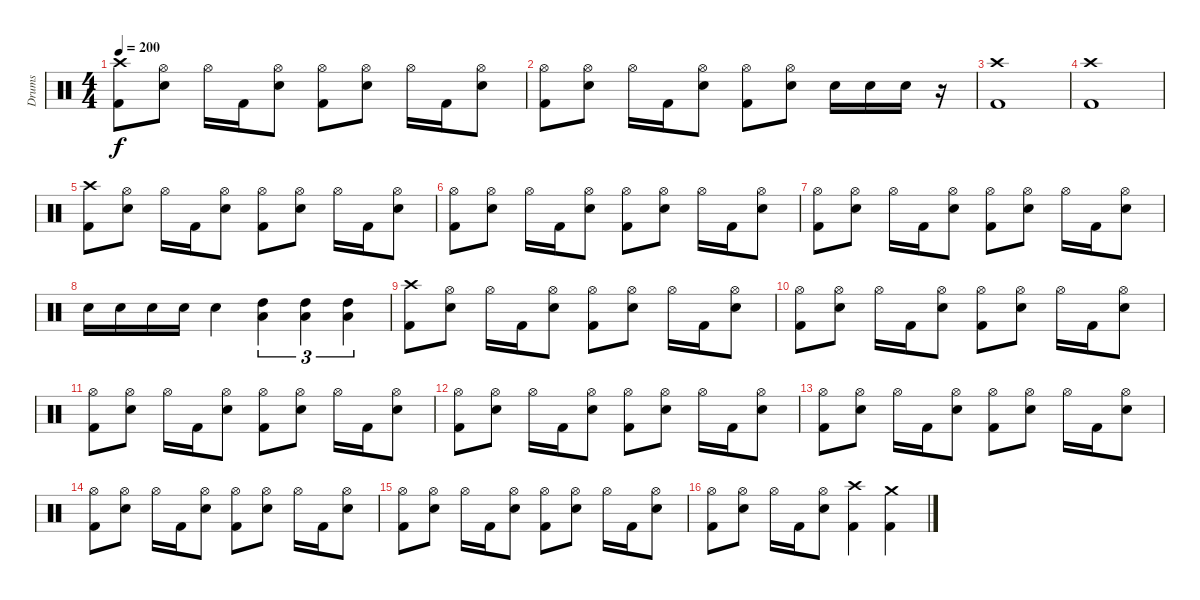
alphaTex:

\track ("Drums" "Drums") {instrument percussion}
\staff {score}
\articulation defaults
\ts (4 4)
\tempo 200
\clef neutral
\ks c
("Crash high (hit)" "Kick (hit) 2").8{dy f} ("Hi-Hat (open)" "Snare (hit) 2").8 "Hi-Hat (open)".16 "Kick (hit) 2".16 ("Hi-Hat (open)" "Snare (hit) 2").8 ("Hi-Hat (open)" "Kick (hit) 2").8 ("Hi-Hat (open)" "Snare (hit) 2").8 "Hi-Hat (open)".16 "Kick (hit) 2".16 ("Hi-Hat (open)" "Snare (hit) 2").8 |
("Hi-Hat (open)" "Kick (hit) 2").8 ("Hi-Hat (open)" "Snare (hit) 2").8 "Hi-Hat (open)".16 "Kick (hit) 2".16 ("Hi-Hat (open)" "Snare (hit) 2").8 ("Hi-Hat (open)" "Kick (hit) 2").8 ("Hi-Hat (open)" "Snare (hit) 2").8 "Snare (hit) 2".16 "Snare (hit) 2".16 "Snare (hit) 2".16 r.16 |
("Crash high (hit)" "Kick (hit) 2").1 |
("Crash high (hit)" "Kick (hit) 2").1 |
("Crash high (hit)" "Kick (hit) 2").8 ("Hi-Hat (open)" "Snare (hit) 2").8 "Hi-Hat (open)".16 "Kick (hit) 2".16 ("Hi-Hat (open)" "Snare (hit) 2").8 ("Hi-Hat (open)" "Kick (hit) 2").8 ("Hi-Hat (open)" "Snare (hit) 2").8 "Hi-Hat (open)".16 "Kick (hit) 2".16 ("Hi-Hat (open)" "Snare (hit) 2").8 |
("Hi-Hat (open)" "Kick (hit) 2").8 ("Hi-Hat (open)" "Snare (hit) 2").8 "Hi-Hat (open)".16 "Kick (hit) 2".16 ("Hi-Hat (open)" "Snare (hit) 2").8 ("Hi-Hat (open)" "Kick (hit) 2").8 ("Hi-Hat (open)" "Snare (hit) 2").8 "Hi-Hat (open)".16 "Kick (hit) 2".16 ("Hi-Hat (open)" "Snare (hit) 2").8 |
("Hi-Hat (open)" "Kick (hit) 2").8 ("Hi-Hat (open)" "Snare (hit) 2").8 "Hi-Hat (open)".16 "Kick (hit) 2".16 ("Hi-Hat (open)" "Snare (hit) 2").8 ("Hi-Hat (open)" "Kick (hit) 2").8 ("Hi-Hat (open)" "Snare (hit) 2").8 "Hi-Hat (open)".16 "Kick (hit) 2".16 ("Hi-Hat (open)" "Snare (hit) 2").8 |
"Snare (hit) 2".16 "Snare (hit) 2".16 "Snare (hit) 2".16 "Snare (hit) 2".16 "Snare (hit) 2".4 ("High Tom (hit)" "Low Tom (hit)").4{tu (3 2)} ("High Tom (hit)" "Low Tom (hit)").4{tu (3 2)} ("High Tom (hit)" "Low Tom (hit)").4{tu (3 2)} |
("Crash high (hit)" "Kick (hit) 2").8 ("Hi-Hat (open)" "Snare (hit) 2").8 "Hi-Hat (open)".16 "Kick (hit) 2".16 ("Hi-Hat (open)" "Snare (hit) 2").8 ("Hi-Hat (open)" "Kick (hit) 2").8 ("Hi-Hat (open)" "Snare (hit) 2").8 "Hi-Hat (open)".16 "Kick (hit) 2".16 ("Hi-Hat (open)" "Snare (hit) 2").8 |
("Hi-Hat (open)" "Kick (hit) 2").8 ("Hi-Hat (open)" "Snare (hit) 2").8 "Hi-Hat (open)".16 "Kick (hit) 2".16 ("Hi-Hat (open)" "Snare (hit) 2").8 ("Hi-Hat (open)" "Kick (hit) 2").8 ("Hi-Hat (open)" "Snare (hit) 2").8 "Hi-Hat (open)".16 "Kick (hit) 2".16 ("Hi-Hat (open)" "Snare (hit) 2").8 |
("Hi-Hat (open)" "Kick (hit) 2").8 ("Hi-Hat (open)" "Snare (hit) 2").8 "Hi-Hat (open)".16 "Kick (hit) 2".16 ("Hi-Hat (open)" "Snare (hit) 2").8 ("Hi-Hat (open)" "Kick (hit) 2").8 ("Hi-Hat (open)" "Snare (hit) 2").8 "Hi-Hat (open)".16 "Kick (hit) 2".16 ("Hi-Hat (open)" "Snare (hit) 2").8 |
("Hi-Hat (open)" "Kick (hit) 2").8 ("Hi-Hat (open)" "Snare (hit) 2").8 "Hi-Hat (open)".16 "Kick (hit) 2".16 ("Hi-Hat (open)" "Snare (hit) 2").8 ("Hi-Hat (open)" "Kick (hit) 2").8 ("Hi-Hat (open)" "Snare (hit) 2").8 "Hi-Hat (open)".16 "Kick (hit) 2".16 ("Hi-Hat (open)" "Snare (hit) 2").8 |
("Hi-Hat (open)" "Kick (hit) 2").8 ("Hi-Hat (open)" "Snare (hit) 2").8 "Hi-Hat (open)".16 "Kick (hit) 2".16 ("Hi-Hat (open)" "Snare (hit) 2").8 ("Hi-Hat (open)" "Kick (hit) 2").8 ("Hi-Hat (open)" "Snare (hit) 2").8 "Hi-Hat (open)".16 "Kick (hit) 2".16 ("Hi-Hat (open)" "Snare (hit) 2").8 |
("Hi-Hat (open)" "Kick (hit) 2").8 ("Hi-Hat (open)" "Snare (hit) 2").8 "Hi-Hat (open)".16 "Kick (hit) 2".16 ("Hi-Hat (open)" "Snare (hit) 2").8 ("Hi-Hat (open)" "Kick (hit) 2").8 ("Hi-Hat (open)" "Snare (hit) 2").8 "Hi-Hat (open)".16 "Kick (hit) 2".16 ("Hi-Hat (open)" "Snare (hit) 2").8 |
("Hi-Hat (open)" "Kick (hit) 2").8 ("Hi-Hat (open)" "Snare (hit) 2").8 "Hi-Hat (open)".16 "Kick (hit) 2".16 ("Hi-Hat (open)" "Snare (hit) 2").8 ("Hi-Hat (open)" "Kick (hit) 2").8 ("Hi-Hat (open)" "Snare (hit) 2").8 "Hi-Hat (open)".16 "Kick (hit) 2".16 ("Hi-Hat (open)" "Snare (hit) 2").8 |
("Hi-Hat (open)" "Kick (hit) 2").8 ("Hi-Hat (open)" "Snare (hit) 2").8 "Hi-Hat (open)".16 "Kick (hit) 2".16 ("Hi-Hat (open)" "Snare (hit) 2").8 ("Crash high (hit)" "Kick (hit) 2").4 ("Crash medium (hit)" "Kick (hit) 2").4
